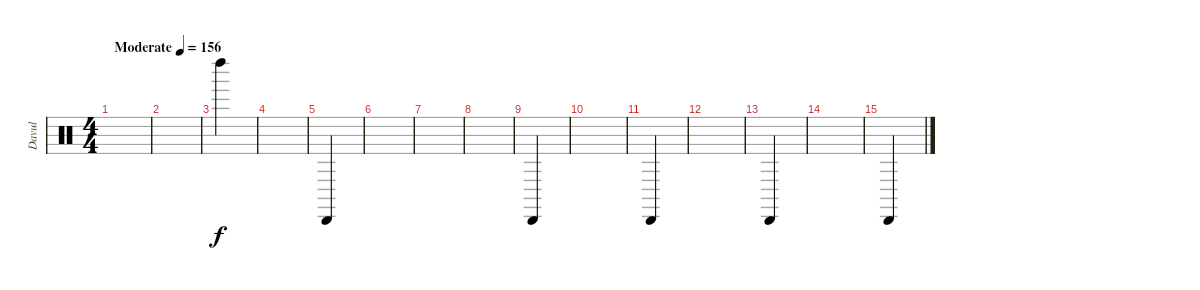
\track ("Davul" "Davul") {instrument percussion}
\staff {score}
\articulation defaults
\ts (4 4)
\tempo (156 "Moderate")
\clef neutral
\ks c
|
|
"Left Maraca (hit)".4 |
|
"Cabasa (hit)".4 |
|
|
|
"Cabasa (hit)".4 |
|
"Cabasa (hit)".4 |
|
"Cabasa (hit)".4 |
|
"Cabasa (hit)".4
